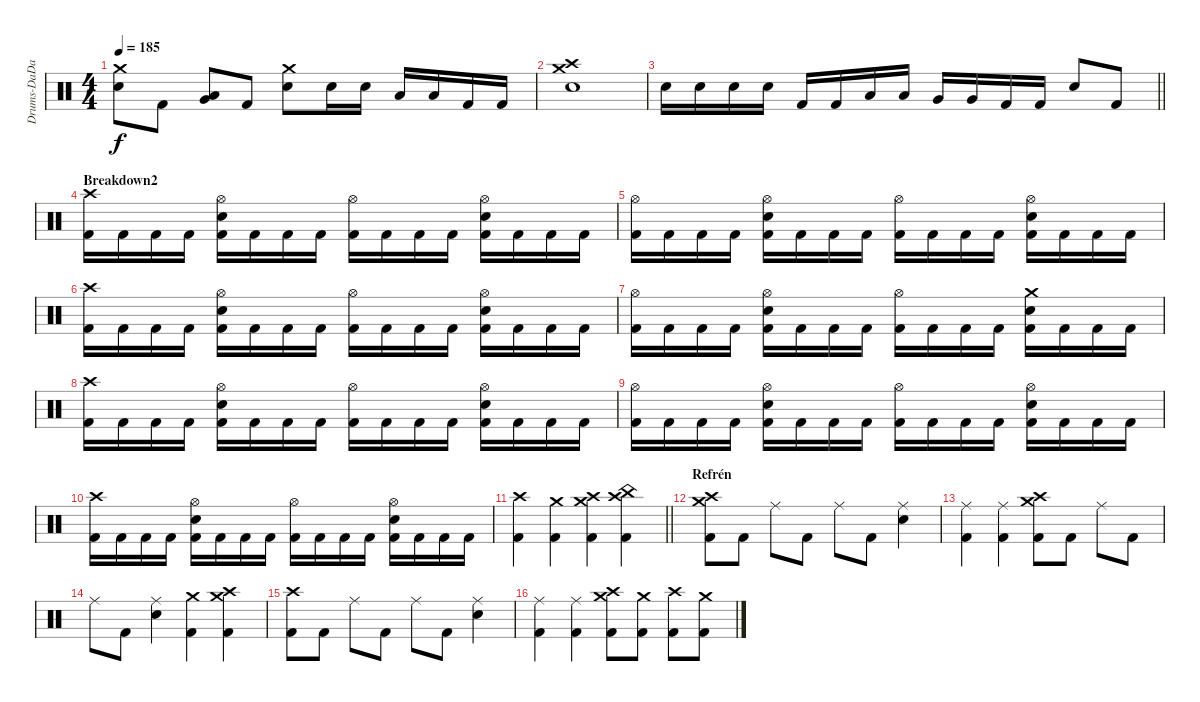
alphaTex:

\track ("Drums-DaDa" "Drums-DaDa") {instrument percussion}
\staff {score}
\articulation defaults
\ts (4 4)
\tempo 185
\clef neutral
\ks c
("Crash medium (hit)" "Electric Snare (hit)").8{dy f} "Kick (hit) 2".8 ("Low Floor Tom (hit)" "Very Low Tom (hit)").8 "Kick (hit) 2".8 ("Crash medium (hit)" "Electric Snare (hit)").8 "Electric Snare (hit)".16 "Electric Snare (hit)".16 "Low Tom (hit)".16 "Low Tom (hit)".16 "Kick (hit) 2".16 "Kick (hit) 2".16 |
("Crash high (hit)" "Crash medium (hit)" "Electric Snare (hit)").1 |
\barLineRight lightlight "Electric Snare (hit)".16 "Electric Snare (hit)".16 "Electric Snare (hit)".16 "Electric Snare (hit)".16 "Kick (hit) 2".16 "Kick (hit) 2".16 "Low Tom (hit)".16 "Low Tom (hit)".16 "Very Low Tom (hit)".16 "Very Low Tom (hit)".16 "Kick (hit) 2".16 "Kick (hit) 2".16 "Electric Snare (hit)".8 "Kick (hit) 2".8
|
\section ("" "Breakdown2")
("Crash high (hit)" "Kick (hit) 2").16 "Kick (hit) 2".16 "Kick (hit) 2".16 "Kick (hit) 2".16 ("Hi-Hat (open)" "Electric Snare (hit)" "Kick (hit) 2").16 "Kick (hit) 2".16 "Kick (hit) 2".16 "Kick (hit) 2".16 ("Hi-Hat (open)" "Kick (hit) 2").16 "Kick (hit) 2".16 "Kick (hit) 2".16 "Kick (hit) 2".16 ("Hi-Hat (open)" "Electric Snare (hit)" "Kick (hit) 2").16 "Kick (hit) 2".16 "Kick (hit) 2".16 "Kick (hit) 2".16 |
("Hi-Hat (open)" "Kick (hit) 2").16 "Kick (hit) 2".16 "Kick (hit) 2".16 "Kick (hit) 2".16 ("Hi-Hat (open)" "Electric Snare (hit)" "Kick (hit) 2").16 "Kick (hit) 2".16 "Kick (hit) 2".16 "Kick (hit) 2".16 ("Hi-Hat (open)" "Kick (hit) 2").16 "Kick (hit) 2".16 "Kick (hit) 2".16 "Kick (hit) 2".16 ("Hi-Hat (open)" "Electric Snare (hit)" "Kick (hit) 2").16 "Kick (hit) 2".16 "Kick (hit) 2".16 "Kick (hit) 2".16 |
("Crash high (hit)" "Kick (hit) 2").16 "Kick (hit) 2".16 "Kick (hit) 2".16 "Kick (hit) 2".16 ("Hi-Hat (open)" "Electric Snare (hit)" "Kick (hit) 2").16 "Kick (hit) 2".16 "Kick (hit) 2".16 "Kick (hit) 2".16 ("Hi-Hat (open)" "Kick (hit) 2").16 "Kick (hit) 2".16 "Kick (hit) 2".16 "Kick (hit) 2".16 ("Hi-Hat (open)" "Electric Snare (hit)" "Kick (hit) 2").16 "Kick (hit) 2".16 "Kick (hit) 2".16 "Kick (hit) 2".16 |
("Hi-Hat (open)" "Kick (hit) 2").16 "Kick (hit) 2".16 "Kick (hit) 2".16 "Kick (hit) 2".16 ("Hi-Hat (open)" "Electric Snare (hit)" "Kick (hit) 2").16 "Kick (hit) 2".16 "Kick (hit) 2".16 "Kick (hit) 2".16 ("Hi-Hat (open)" "Kick (hit) 2").16 "Kick (hit) 2".16 "Kick (hit) 2".16 "Kick (hit) 2".16 ("Crash medium (hit)" "Electric Snare (hit)" "Kick (hit) 2").16 "Kick (hit) 2".16 "Kick (hit) 2".16 "Kick (hit) 2".16 |
("Crash high (hit)" "Kick (hit) 2").16 "Kick (hit) 2".16 "Kick (hit) 2".16 "Kick (hit) 2".16 ("Hi-Hat (open)" "Electric Snare (hit)" "Kick (hit) 2").16 "Kick (hit) 2".16 "Kick (hit) 2".16 "Kick (hit) 2".16 ("Hi-Hat (open)" "Kick (hit) 2").16 "Kick (hit) 2".16 "Kick (hit) 2".16 "Kick (hit) 2".16 ("Hi-Hat (open)" "Electric Snare (hit)" "Kick (hit) 2").16 "Kick (hit) 2".16 "Kick (hit) 2".16 "Kick (hit) 2".16 |
("Hi-Hat (open)" "Kick (hit) 2").16 "Kick (hit) 2".16 "Kick (hit) 2".16 "Kick (hit) 2".16 ("Hi-Hat (open)" "Electric Snare (hit)" "Kick (hit) 2").16 "Kick (hit) 2".16 "Kick (hit) 2".16 "Kick (hit) 2".16 ("Hi-Hat (open)" "Kick (hit) 2").16 "Kick (hit) 2".16 "Kick (hit) 2".16 "Kick (hit) 2".16 ("Hi-Hat (open)" "Electric Snare (hit)" "Kick (hit) 2").16 "Kick (hit) 2".16 "Kick (hit) 2".16 "Kick (hit) 2".16 |
("Crash high (hit)" "Kick (hit) 2").16 "Kick (hit) 2".16 "Kick (hit) 2".16 "Kick (hit) 2".16 ("Hi-Hat (open)" "Electric Snare (hit)" "Kick (hit) 2").16 "Kick (hit) 2".16 "Kick (hit) 2".16 "Kick (hit) 2".16 ("Hi-Hat (open)" "Kick (hit) 2").16 "Kick (hit) 2".16 "Kick (hit) 2".16 "Kick (hit) 2".16 ("Hi-Hat (open)" "Electric Snare (hit)" "Kick (hit) 2").16 "Kick (hit) 2".16 "Kick (hit) 2".16 "Kick (hit) 2".16 |
\barLineRight lightlight
("Crash high (hit)" "Kick (hit) 2").4 ("Crash medium (hit)" "Kick (hit) 2").4 ("Crash medium (hit)" "Crash high (hit)" "Kick (hit) 2").4 ("China (hit)" "Crash high (hit)" "Kick (hit) 2").4 |
\section ("" "Refrén")
("Crash medium (hit)" "Crash high (hit)" "Kick (hit) 2").8 "Kick (hit) 2".8 "Ride (middle)".8 "Kick (hit) 2".8 "Ride (middle)".8 "Kick (hit) 2".8 ("Ride (middle)" "Electric Snare (hit)").4 |
("Ride (middle)" "Kick (hit) 2").4 ("Ride (middle)" "Kick (hit) 2").4 ("Crash medium (hit)" "Crash high (hit)" "Kick (hit) 2").8 "Kick (hit) 2".8 "Ride (middle)".8 "Kick (hit) 2".8 |
"Ride (middle)".8 "Kick (hit) 2".8 ("Ride (middle)" "Electric Snare (hit)").4 ("Crash medium (hit)" "Kick (hit) 2").4 ("Crash medium (hit)" "Crash high (hit)" "Kick (hit) 2").4 |
("Crash high (hit)" "Kick (hit) 2").8 "Kick (hit) 2".8 "Ride (middle)".8 "Kick (hit) 2".8 "Ride (middle)".8 "Kick (hit) 2".8 ("Ride (middle)" "Electric Snare (hit)").4 |
("Ride (middle)" "Kick (hit) 2").4 ("Ride (middle)" "Kick (hit) 2").4 ("Crash medium (hit)" "Crash high (hit)" "Kick (hit) 2").8 ("Crash medium (hit)" "Kick (hit) 2").8 ("Crash high (hit)" "Kick (hit) 2").8 ("Crash medium (hit)" "Kick (hit) 2").8
